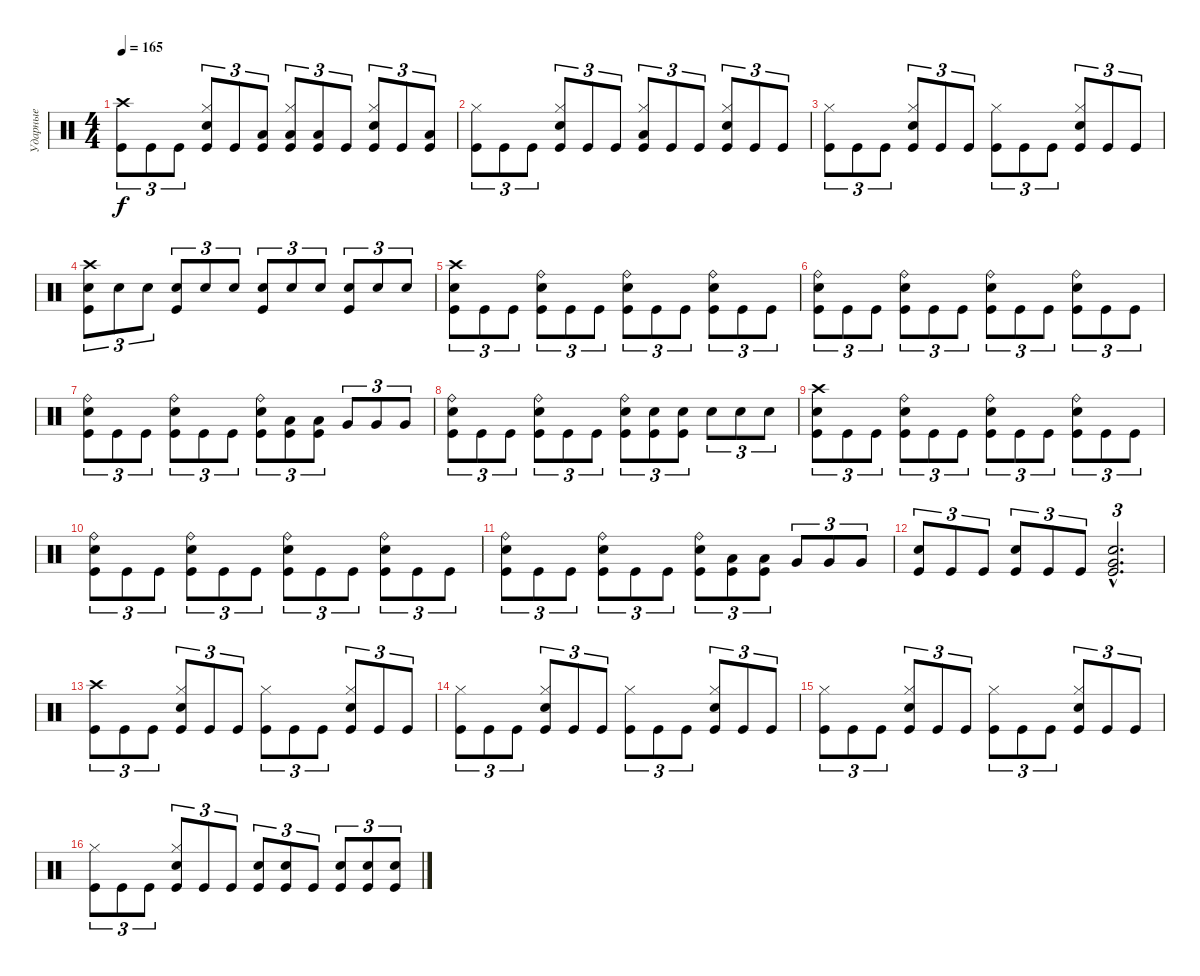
\track ("Ударные" "Ударные") {instrument percussion}
\staff {score}
\articulation defaults
\ts (4 4)
\tempo 165
\clef neutral
\ks c
("Crash high (hit)" "Kick (hit)").8{tu (3 2) dy f} "Kick (hit)".8{tu (3 2)} "Kick (hit)".8{tu (3 2)} ("Hi-Hat (closed)" "Electric Snare (hit)" "Kick (hit)").8{tu (3 2)} "Kick (hit)".8{tu (3 2)} ("Low Tom (hit)" "Kick (hit)").8{tu (3 2)} ("Hi-Hat (closed)" "Low Tom (hit)" "Kick (hit)").8{tu (3 2)} ("Low Tom (hit)" "Kick (hit)").8{tu (3 2)} "Kick (hit)".8{tu (3 2)} ("Hi-Hat (closed)" "Electric Snare (hit)" "Kick (hit)").8{tu (3 2)} "Kick (hit)".8{tu (3 2)} ("Low Tom (hit)" "Kick (hit)").8{tu (3 2)} |
("Hi-Hat (closed)" "Kick (hit)").8{tu (3 2)} "Kick (hit)".8{tu (3 2)} "Kick (hit)".8{tu (3 2)} ("Hi-Hat (closed)" "Electric Snare (hit)" "Kick (hit)").8{tu (3 2)} "Kick (hit)".8{tu (3 2)} "Kick (hit)".8{tu (3 2)} ("Hi-Hat (closed)" "Low Tom (hit)" "Kick (hit)").8{tu (3 2)} "Kick (hit)".8{tu (3 2)} "Kick (hit)".8{tu (3 2)} ("Hi-Hat (closed)" "Electric Snare (hit)" "Kick (hit)").8{tu (3 2)} "Kick (hit)".8{tu (3 2)} "Kick (hit)".8{tu (3 2)} |
("Hi-Hat (closed)" "Kick (hit)").8{tu (3 2)} "Kick (hit)".8{tu (3 2)} "Kick (hit)".8{tu (3 2)} ("Hi-Hat (closed)" "Electric Snare (hit)" "Kick (hit)").8{tu (3 2)} "Kick (hit)".8{tu (3 2)} "Kick (hit)".8{tu (3 2)} ("Hi-Hat (closed)" "Kick (hit)").8{tu (3 2)} "Kick (hit)".8{tu (3 2)} "Kick (hit)".8{tu (3 2)} ("Hi-Hat (closed)" "Electric Snare (hit)" "Kick (hit)").8{tu (3 2)} "Kick (hit)".8{tu (3 2)} "Kick (hit)".8{tu (3 2)} |
("Crash high (hit)" "Electric Snare (hit)" "Kick (hit)").8{tu (3 2)} "Electric Snare (hit)".8{tu (3 2)} "Electric Snare (hit)".8{tu (3 2)} ("Electric Snare (hit)" "Kick (hit)").8{tu (3 2)} "Electric Snare (hit)".8{tu (3 2)} "Electric Snare (hit)".8{tu (3 2)} ("Electric Snare (hit)" "Kick (hit)").8{tu (3 2)} "Electric Snare (hit)".8{tu (3 2)} "Electric Snare (hit)".8{tu (3 2)} ("Electric Snare (hit)" "Kick (hit)").8{tu (3 2)} "Electric Snare (hit)".8{tu (3 2)} "Electric Snare (hit)".8{tu (3 2)} |
("Crash high (hit)" "Electric Snare (hit)" "Kick (hit)").8{tu (3 2)} "Kick (hit)".8{tu (3 2)} "Kick (hit)".8{tu (3 2)} ("Ride (bell)" "Electric Snare (hit)" "Kick (hit)").8{tu (3 2)} "Kick (hit)".8{tu (3 2)} "Kick (hit)".8{tu (3 2)} ("Ride (bell)" "Electric Snare (hit)" "Kick (hit)").8{tu (3 2)} "Kick (hit)".8{tu (3 2)} "Kick (hit)".8{tu (3 2)} ("Ride (bell)" "Electric Snare (hit)" "Kick (hit)").8{tu (3 2)} "Kick (hit)".8{tu (3 2)} "Kick (hit)".8{tu (3 2)} |
("Ride (bell)" "Electric Snare (hit)" "Kick (hit)").8{tu (3 2)} "Kick (hit)".8{tu (3 2)} "Kick (hit)".8{tu (3 2)} ("Ride (bell)" "Electric Snare (hit)" "Kick (hit)").8{tu (3 2)} "Kick (hit)".8{tu (3 2)} "Kick (hit)".8{tu (3 2)} ("Ride (bell)" "Electric Snare (hit)" "Kick (hit)").8{tu (3 2)} "Kick (hit)".8{tu (3 2)} "Kick (hit)".8{tu (3 2)} ("Ride (bell)" "Electric Snare (hit)" "Kick (hit)").8{tu (3 2)} "Kick (hit)".8{tu (3 2)} "Kick (hit)".8{tu (3 2)} |
("Ride (bell)" "Electric Snare (hit)" "Kick (hit)").8{tu (3 2)} "Kick (hit)".8{tu (3 2)} "Kick (hit)".8{tu (3 2)} ("Ride (bell)" "Electric Snare (hit)" "Kick (hit)").8{tu (3 2)} "Kick (hit)".8{tu (3 2)} "Kick (hit)".8{tu (3 2)} ("Ride (bell)" "Electric Snare (hit)" "Kick (hit)").8{tu (3 2)} ("Low Tom (hit)" "Kick (hit)").8{tu (3 2)} ("Low Tom (hit)" "Kick (hit)").8{tu (3 2)} "Very Low Tom (hit)".8{tu (3 2)} "Very Low Tom (hit)".8{tu (3 2)} "Very Low Tom (hit)".8{tu (3 2)} |
("Ride (bell)" "Electric Snare (hit)" "Kick (hit)").8{tu (3 2)} "Kick (hit)".8{tu (3 2)} "Kick (hit)".8{tu (3 2)} ("Ride (bell)" "Electric Snare (hit)" "Kick (hit)").8{tu (3 2)} "Kick (hit)".8{tu (3 2)} "Kick (hit)".8{tu (3 2)} ("Ride (bell)" "Electric Snare (hit)" "Kick (hit)").8{tu (3 2)} ("Electric Snare (hit)" "Kick (hit)").8{tu (3 2)} ("Electric Snare (hit)" "Kick (hit)").8{tu (3 2)} "Electric Snare (hit)".8{tu (3 2)} "Electric Snare (hit)".8{tu (3 2)} "Electric Snare (hit)".8{tu (3 2)} |
("Crash high (hit)" "Electric Snare (hit)" "Kick (hit)").8{tu (3 2)} "Kick (hit)".8{tu (3 2)} "Kick (hit)".8{tu (3 2)} ("Ride (bell)" "Electric Snare (hit)" "Kick (hit)").8{tu (3 2)} "Kick (hit)".8{tu (3 2)} "Kick (hit)".8{tu (3 2)} ("Ride (bell)" "Electric Snare (hit)" "Kick (hit)").8{tu (3 2)} "Kick (hit)".8{tu (3 2)} "Kick (hit)".8{tu (3 2)} ("Ride (bell)" "Electric Snare (hit)" "Kick (hit)").8{tu (3 2)} "Kick (hit)".8{tu (3 2)} "Kick (hit)".8{tu (3 2)} |
("Ride (bell)" "Electric Snare (hit)" "Kick (hit)").8{tu (3 2)} "Kick (hit)".8{tu (3 2)} "Kick (hit)".8{tu (3 2)} ("Ride (bell)" "Electric Snare (hit)" "Kick (hit)").8{tu (3 2)} "Kick (hit)".8{tu (3 2)} "Kick (hit)".8{tu (3 2)} ("Ride (bell)" "Electric Snare (hit)" "Kick (hit)").8{tu (3 2)} "Kick (hit)".8{tu (3 2)} "Kick (hit)".8{tu (3 2)} ("Ride (bell)" "Electric Snare (hit)" "Kick (hit)").8{tu (3 2)} "Kick (hit)".8{tu (3 2)} "Kick (hit)".8{tu (3 2)} |
("Ride (bell)" "Electric Snare (hit)" "Kick (hit)").8{tu (3 2)} "Kick (hit)".8{tu (3 2)} "Kick (hit)".8{tu (3 2)} ("Ride (bell)" "Electric Snare (hit)" "Kick (hit)").8{tu (3 2)} "Kick (hit)".8{tu (3 2)} "Kick (hit)".8{tu (3 2)} ("Ride (bell)" "Electric Snare (hit)" "Kick (hit)").8{tu (3 2)} ("Low Tom (hit)" "Kick (hit)").8{tu (3 2)} ("Low Tom (hit)" "Kick (hit)").8{tu (3 2)} "Very Low Tom (hit)".8{tu (3 2)} "Very Low Tom (hit)".8{tu (3 2)} "Very Low Tom (hit)".8{tu (3 2)} |
("Electric Snare (hit)" "Kick (hit)").8{tu (3 2)} "Kick (hit)".8{tu (3 2)} "Kick (hit)".8{tu (3 2)} ("Electric Snare (hit)" "Kick (hit)").8{tu (3 2)} "Kick (hit)".8{tu (3 2)} "Kick (hit)".8{tu (3 2)} ("Very Low Tom (hit)"{hac} "Electric Snare (hit)"{hac} "Kick (hit)"{hac}).2{d tu (3 2)} |
("Crash high (hit)" "Kick (hit)").8{tu (3 2)} "Kick (hit)".8{tu (3 2)} "Kick (hit)".8{tu (3 2)} ("Hi-Hat (closed)" "Electric Snare (hit)" "Kick (hit)").8{tu (3 2)} "Kick (hit)".8{tu (3 2)} "Kick (hit)".8{tu (3 2)} ("Hi-Hat (closed)" "Kick (hit)").8{tu (3 2)} "Kick (hit)".8{tu (3 2)} "Kick (hit)".8{tu (3 2)} ("Hi-Hat (closed)" "Electric Snare (hit)" "Kick (hit)").8{tu (3 2)} "Kick (hit)".8{tu (3 2)} "Kick (hit)".8{tu (3 2)} |
("Hi-Hat (closed)" "Kick (hit)").8{tu (3 2)} "Kick (hit)".8{tu (3 2)} "Kick (hit)".8{tu (3 2)} ("Hi-Hat (closed)" "Electric Snare (hit)" "Kick (hit)").8{tu (3 2)} "Kick (hit)".8{tu (3 2)} "Kick (hit)".8{tu (3 2)} ("Hi-Hat (closed)" "Kick (hit)").8{tu (3 2)} "Kick (hit)".8{tu (3 2)} "Kick (hit)".8{tu (3 2)} ("Hi-Hat (closed)" "Electric Snare (hit)" "Kick (hit)").8{tu (3 2)} "Kick (hit)".8{tu (3 2)} "Kick (hit)".8{tu (3 2)} |
("Hi-Hat (closed)" "Kick (hit)").8{tu (3 2)} "Kick (hit)".8{tu (3 2)} "Kick (hit)".8{tu (3 2)} ("Hi-Hat (closed)" "Electric Snare (hit)" "Kick (hit)").8{tu (3 2)} "Kick (hit)".8{tu (3 2)} "Kick (hit)".8{tu (3 2)} ("Hi-Hat (closed)" "Kick (hit)").8{tu (3 2)} "Kick (hit)".8{tu (3 2)} "Kick (hit)".8{tu (3 2)} ("Hi-Hat (closed)" "Electric Snare (hit)" "Kick (hit)").8{tu (3 2)} "Kick (hit)".8{tu (3 2)} "Kick (hit)".8{tu (3 2)} |
("Hi-Hat (closed)" "Kick (hit)").8{tu (3 2)} "Kick (hit)".8{tu (3 2)} "Kick (hit)".8{tu (3 2)} ("Hi-Hat (closed)" "Electric Snare (hit)" "Kick (hit)").8{tu (3 2)} "Kick (hit)".8{tu (3 2)} "Kick (hit)".8{tu (3 2)} ("Electric Snare (hit)" "Kick (hit)").8{tu (3 2)} ("Electric Snare (hit)" "Kick (hit)").8{tu (3 2)} "Kick (hit)".8{tu (3 2)} ("Electric Snare (hit)" "Kick (hit)").8{tu (3 2)} ("Electric Snare (hit)" "Kick (hit)").8{tu (3 2)} ("Electric Snare (hit)" "Kick (hit)").8{tu (3 2)}
